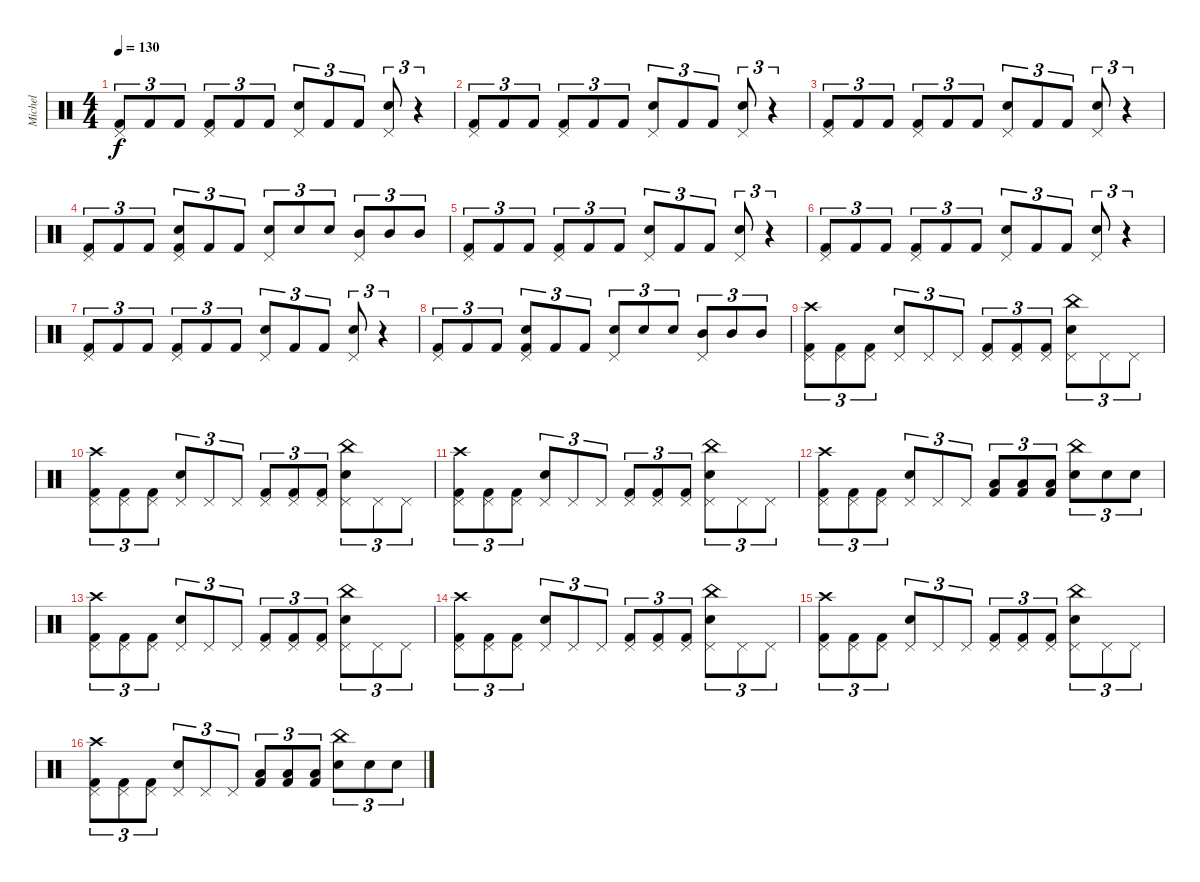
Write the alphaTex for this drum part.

\track ("Michel" "Michel") {instrument percussion}
\staff {score}
\articulation defaults
\ts (4 4)
\tempo 130
\clef neutral
\ks c
("Kick (hit) 2" "Pedal Hi-Hat (hit)").8{tu (3 2) dy f} "Kick (hit) 2".8{tu (3 2)} "Kick (hit) 2".8{tu (3 2)} ("Kick (hit) 2" "Pedal Hi-Hat (hit)").8{tu (3 2)} "Kick (hit) 2".8{tu (3 2)} "Kick (hit) 2".8{tu (3 2)} ("Snare (hit) 2" "Pedal Hi-Hat (hit)").8{tu (3 2)} "Kick (hit) 2".8{tu (3 2)} "Kick (hit) 2".8{tu (3 2)} ("Snare (hit) 2" "Pedal Hi-Hat (hit)").8{tu (3 2)} r.4{tu (3 2)} |
("Kick (hit) 2" "Pedal Hi-Hat (hit)").8{tu (3 2)} "Kick (hit) 2".8{tu (3 2)} "Kick (hit) 2".8{tu (3 2)} ("Kick (hit) 2" "Pedal Hi-Hat (hit)").8{tu (3 2)} "Kick (hit) 2".8{tu (3 2)} "Kick (hit) 2".8{tu (3 2)} ("Snare (hit) 2" "Pedal Hi-Hat (hit)").8{tu (3 2)} "Kick (hit) 2".8{tu (3 2)} "Kick (hit) 2".8{tu (3 2)} ("Snare (hit) 2" "Pedal Hi-Hat (hit)").8{tu (3 2)} r.4{tu (3 2)} |
("Kick (hit) 2" "Pedal Hi-Hat (hit)").8{tu (3 2)} "Kick (hit) 2".8{tu (3 2)} "Kick (hit) 2".8{tu (3 2)} ("Kick (hit) 2" "Pedal Hi-Hat (hit)").8{tu (3 2)} "Kick (hit) 2".8{tu (3 2)} "Kick (hit) 2".8{tu (3 2)} ("Snare (hit) 2" "Pedal Hi-Hat (hit)").8{tu (3 2)} "Kick (hit) 2".8{tu (3 2)} "Kick (hit) 2".8{tu (3 2)} ("Snare (hit) 2" "Pedal Hi-Hat (hit)").8{tu (3 2)} r.4{tu (3 2)} |
("Kick (hit) 2" "Pedal Hi-Hat (hit)").8{tu (3 2)} "Kick (hit) 2".8{tu (3 2)} "Kick (hit) 2".8{tu (3 2)} ("Snare (hit) 2" "Kick (hit) 2" "Pedal Hi-Hat (hit)").8{tu (3 2)} "Kick (hit) 2".8{tu (3 2)} "Kick (hit) 2".8{tu (3 2)} ("Snare (hit) 2" "Pedal Hi-Hat (hit)").8{tu (3 2)} "Snare (hit) 2".8{tu (3 2)} "Snare (hit) 2".8{tu (3 2)} ("Mid Tom (hit)" "Pedal Hi-Hat (hit)").8{tu (3 2)} "Mid Tom (hit)".8{tu (3 2)} "Mid Tom (hit)".8{tu (3 2)} |
("Kick (hit) 2" "Pedal Hi-Hat (hit)").8{tu (3 2)} "Kick (hit) 2".8{tu (3 2)} "Kick (hit) 2".8{tu (3 2)} ("Kick (hit) 2" "Pedal Hi-Hat (hit)").8{tu (3 2)} "Kick (hit) 2".8{tu (3 2)} "Kick (hit) 2".8{tu (3 2)} ("Snare (hit) 2" "Pedal Hi-Hat (hit)").8{tu (3 2)} "Kick (hit) 2".8{tu (3 2)} "Kick (hit) 2".8{tu (3 2)} ("Snare (hit) 2" "Pedal Hi-Hat (hit)").8{tu (3 2)} r.4{tu (3 2)} |
("Kick (hit) 2" "Pedal Hi-Hat (hit)").8{tu (3 2)} "Kick (hit) 2".8{tu (3 2)} "Kick (hit) 2".8{tu (3 2)} ("Kick (hit) 2" "Pedal Hi-Hat (hit)").8{tu (3 2)} "Kick (hit) 2".8{tu (3 2)} "Kick (hit) 2".8{tu (3 2)} ("Snare (hit) 2" "Pedal Hi-Hat (hit)").8{tu (3 2)} "Kick (hit) 2".8{tu (3 2)} "Kick (hit) 2".8{tu (3 2)} ("Snare (hit) 2" "Pedal Hi-Hat (hit)").8{tu (3 2)} r.4{tu (3 2)} |
("Kick (hit) 2" "Pedal Hi-Hat (hit)").8{tu (3 2)} "Kick (hit) 2".8{tu (3 2)} "Kick (hit) 2".8{tu (3 2)} ("Kick (hit) 2" "Pedal Hi-Hat (hit)").8{tu (3 2)} "Kick (hit) 2".8{tu (3 2)} "Kick (hit) 2".8{tu (3 2)} ("Snare (hit) 2" "Pedal Hi-Hat (hit)").8{tu (3 2)} "Kick (hit) 2".8{tu (3 2)} "Kick (hit) 2".8{tu (3 2)} ("Snare (hit) 2" "Pedal Hi-Hat (hit)").8{tu (3 2)} r.4{tu (3 2)} |
("Kick (hit) 2" "Pedal Hi-Hat (hit)").8{tu (3 2)} "Kick (hit) 2".8{tu (3 2)} "Kick (hit) 2".8{tu (3 2)} ("Snare (hit) 2" "Kick (hit) 2" "Pedal Hi-Hat (hit)").8{tu (3 2)} "Kick (hit) 2".8{tu (3 2)} "Kick (hit) 2".8{tu (3 2)} ("Snare (hit) 2" "Pedal Hi-Hat (hit)").8{tu (3 2)} "Snare (hit) 2".8{tu (3 2)} "Snare (hit) 2".8{tu (3 2)} ("Mid Tom (hit)" "Pedal Hi-Hat (hit)").8{tu (3 2)} "Mid Tom (hit)".8{tu (3 2)} "Mid Tom (hit)".8{tu (3 2)} |
("Crash high (hit)" "Kick (hit) 2" "Pedal Hi-Hat (hit)").8{tu (3 2)} ("Kick (hit) 2" "Pedal Hi-Hat (hit)").8{tu (3 2)} ("Kick (hit) 2" "Pedal Hi-Hat (hit)").8{tu (3 2)} ("Snare (hit) 2" "Pedal Hi-Hat (hit)").8{tu (3 2)} "Pedal Hi-Hat (hit)".8{tu (3 2)} "Pedal Hi-Hat (hit)".8{tu (3 2)} ("Kick (hit) 2" "Pedal Hi-Hat (hit)").8{tu (3 2)} ("Kick (hit) 2" "Pedal Hi-Hat (hit)").8{tu (3 2)} ("Kick (hit) 2" "Pedal Hi-Hat (hit)").8{tu (3 2)} ("China (hit)" "Snare (hit) 2" "Pedal Hi-Hat (hit)").8{tu (3 2)} "Pedal Hi-Hat (hit)".8{tu (3 2)} "Pedal Hi-Hat (hit)".8{tu (3 2)} |
("Crash high (hit)" "Kick (hit) 2" "Pedal Hi-Hat (hit)").8{tu (3 2)} ("Kick (hit) 2" "Pedal Hi-Hat (hit)").8{tu (3 2)} ("Kick (hit) 2" "Pedal Hi-Hat (hit)").8{tu (3 2)} ("Snare (hit) 2" "Pedal Hi-Hat (hit)").8{tu (3 2)} "Pedal Hi-Hat (hit)".8{tu (3 2)} "Pedal Hi-Hat (hit)".8{tu (3 2)} ("Kick (hit) 2" "Pedal Hi-Hat (hit)").8{tu (3 2)} ("Kick (hit) 2" "Pedal Hi-Hat (hit)").8{tu (3 2)} ("Kick (hit) 2" "Pedal Hi-Hat (hit)").8{tu (3 2)} ("China (hit)" "Snare (hit) 2" "Pedal Hi-Hat (hit)").8{tu (3 2)} "Pedal Hi-Hat (hit)".8{tu (3 2)} "Pedal Hi-Hat (hit)".8{tu (3 2)} |
("Crash high (hit)" "Kick (hit) 2" "Pedal Hi-Hat (hit)").8{tu (3 2)} ("Kick (hit) 2" "Pedal Hi-Hat (hit)").8{tu (3 2)} ("Kick (hit) 2" "Pedal Hi-Hat (hit)").8{tu (3 2)} ("Snare (hit) 2" "Pedal Hi-Hat (hit)").8{tu (3 2)} "Pedal Hi-Hat (hit)".8{tu (3 2)} "Pedal Hi-Hat (hit)".8{tu (3 2)} ("Kick (hit) 2" "Pedal Hi-Hat (hit)").8{tu (3 2)} ("Kick (hit) 2" "Pedal Hi-Hat (hit)").8{tu (3 2)} ("Kick (hit) 2" "Pedal Hi-Hat (hit)").8{tu (3 2)} ("China (hit)" "Snare (hit) 2" "Pedal Hi-Hat (hit)").8{tu (3 2)} "Pedal Hi-Hat (hit)".8{tu (3 2)} "Pedal Hi-Hat (hit)".8{tu (3 2)} |
("Crash high (hit)" "Kick (hit) 2" "Pedal Hi-Hat (hit)").8{tu (3 2)} ("Kick (hit) 2" "Pedal Hi-Hat (hit)").8{tu (3 2)} ("Kick (hit) 2" "Pedal Hi-Hat (hit)").8{tu (3 2)} ("Snare (hit) 2" "Pedal Hi-Hat (hit)").8{tu (3 2)} "Pedal Hi-Hat (hit)".8{tu (3 2)} "Pedal Hi-Hat (hit)".8{tu (3 2)} ("Low Tom (hit)" "Kick (hit) 2").8{tu (3 2)} ("Low Tom (hit)" "Kick (hit) 2").8{tu (3 2)} ("Low Tom (hit)" "Kick (hit) 2").8{tu (3 2)} ("China (hit)" "Snare (hit) 2").8{tu (3 2)} "Snare (hit) 2".8{tu (3 2)} "Snare (hit) 2".8{tu (3 2)} |
("Crash high (hit)" "Kick (hit) 2" "Pedal Hi-Hat (hit)").8{tu (3 2)} ("Kick (hit) 2" "Pedal Hi-Hat (hit)").8{tu (3 2)} ("Kick (hit) 2" "Pedal Hi-Hat (hit)").8{tu (3 2)} ("Snare (hit) 2" "Pedal Hi-Hat (hit)").8{tu (3 2)} "Pedal Hi-Hat (hit)".8{tu (3 2)} "Pedal Hi-Hat (hit)".8{tu (3 2)} ("Kick (hit) 2" "Pedal Hi-Hat (hit)").8{tu (3 2)} ("Kick (hit) 2" "Pedal Hi-Hat (hit)").8{tu (3 2)} ("Kick (hit) 2" "Pedal Hi-Hat (hit)").8{tu (3 2)} ("China (hit)" "Snare (hit) 2" "Pedal Hi-Hat (hit)").8{tu (3 2)} "Pedal Hi-Hat (hit)".8{tu (3 2)} "Pedal Hi-Hat (hit)".8{tu (3 2)} |
("Crash high (hit)" "Kick (hit) 2" "Pedal Hi-Hat (hit)").8{tu (3 2)} ("Kick (hit) 2" "Pedal Hi-Hat (hit)").8{tu (3 2)} ("Kick (hit) 2" "Pedal Hi-Hat (hit)").8{tu (3 2)} ("Snare (hit) 2" "Pedal Hi-Hat (hit)").8{tu (3 2)} "Pedal Hi-Hat (hit)".8{tu (3 2)} "Pedal Hi-Hat (hit)".8{tu (3 2)} ("Kick (hit) 2" "Pedal Hi-Hat (hit)").8{tu (3 2)} ("Kick (hit) 2" "Pedal Hi-Hat (hit)").8{tu (3 2)} ("Kick (hit) 2" "Pedal Hi-Hat (hit)").8{tu (3 2)} ("China (hit)" "Snare (hit) 2" "Pedal Hi-Hat (hit)").8{tu (3 2)} "Pedal Hi-Hat (hit)".8{tu (3 2)} "Pedal Hi-Hat (hit)".8{tu (3 2)} |
("Crash high (hit)" "Kick (hit) 2" "Pedal Hi-Hat (hit)").8{tu (3 2)} ("Kick (hit) 2" "Pedal Hi-Hat (hit)").8{tu (3 2)} ("Kick (hit) 2" "Pedal Hi-Hat (hit)").8{tu (3 2)} ("Snare (hit) 2" "Pedal Hi-Hat (hit)").8{tu (3 2)} "Pedal Hi-Hat (hit)".8{tu (3 2)} "Pedal Hi-Hat (hit)".8{tu (3 2)} ("Kick (hit) 2" "Pedal Hi-Hat (hit)").8{tu (3 2)} ("Kick (hit) 2" "Pedal Hi-Hat (hit)").8{tu (3 2)} ("Kick (hit) 2" "Pedal Hi-Hat (hit)").8{tu (3 2)} ("China (hit)" "Snare (hit) 2" "Pedal Hi-Hat (hit)").8{tu (3 2)} "Pedal Hi-Hat (hit)".8{tu (3 2)} "Pedal Hi-Hat (hit)".8{tu (3 2)} |
("Crash high (hit)" "Kick (hit) 2" "Pedal Hi-Hat (hit)").8{tu (3 2)} ("Kick (hit) 2" "Pedal Hi-Hat (hit)").8{tu (3 2)} ("Kick (hit) 2" "Pedal Hi-Hat (hit)").8{tu (3 2)} ("Snare (hit) 2" "Pedal Hi-Hat (hit)").8{tu (3 2)} "Pedal Hi-Hat (hit)".8{tu (3 2)} "Pedal Hi-Hat (hit)".8{tu (3 2)} ("Low Tom (hit)" "Kick (hit) 2").8{tu (3 2)} ("Low Tom (hit)" "Kick (hit) 2").8{tu (3 2)} ("Low Tom (hit)" "Kick (hit) 2").8{tu (3 2)} ("China (hit)" "Snare (hit) 2").8{tu (3 2)} "Snare (hit) 2".8{tu (3 2)} "Snare (hit) 2".8{tu (3 2)}
